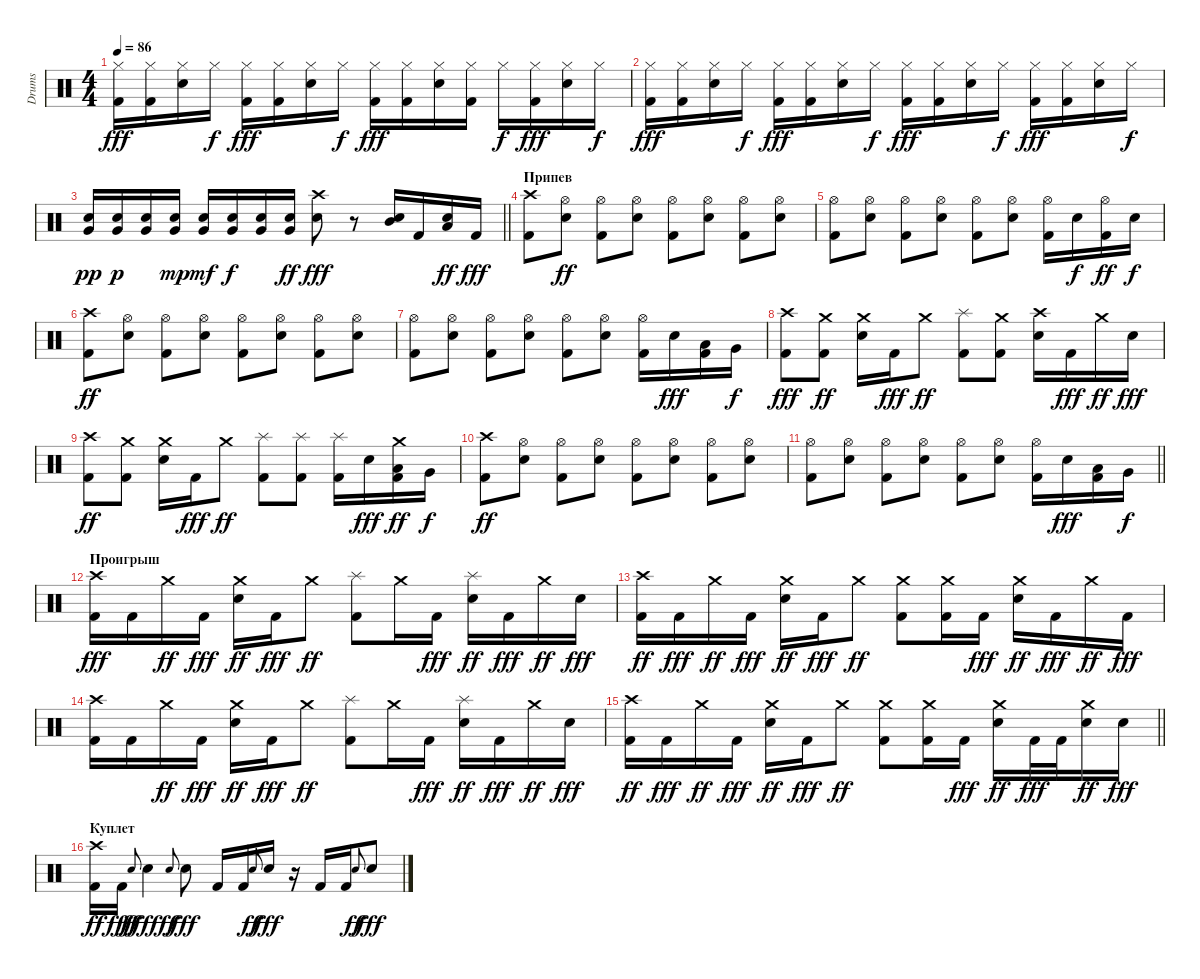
\track ("Drums" "Drums") {instrument percussion}
\staff {score}
\articulation defaults
\ts (4 4)
\tempo 86
\clef neutral
\ks c
("Kick (hit) 2" "Hi-Hat (closed)").16{dy fff} ("Kick (hit) 2" "Hi-Hat (closed)").16 ("Electric Snare (hit)" "Hi-Hat (closed)").16 "Hi-Hat (closed)".16{dy f} ("Kick (hit) 2" "Hi-Hat (closed)").16{dy fff} ("Kick (hit) 2" "Hi-Hat (closed)").16 ("Electric Snare (hit)" "Hi-Hat (closed)").16 "Hi-Hat (closed)".16{dy f} ("Kick (hit) 2" "Hi-Hat (closed)").16{dy fff} ("Kick (hit) 2" "Hi-Hat (closed)").16 ("Electric Snare (hit)" "Hi-Hat (closed)").16 ("Kick (hit) 2" "Hi-Hat (closed)").16 "Hi-Hat (closed)".16{dy f} ("Kick (hit) 2" "Hi-Hat (closed)").16{dy fff} ("Electric Snare (hit)" "Hi-Hat (closed)").16 "Hi-Hat (closed)".16{dy f} |
("Kick (hit) 2" "Hi-Hat (closed)").16{dy fff} ("Kick (hit) 2" "Hi-Hat (closed)").16 ("Electric Snare (hit)" "Hi-Hat (closed)").16 "Hi-Hat (closed)".16{dy f} ("Kick (hit) 2" "Hi-Hat (closed)").16{dy fff} ("Kick (hit) 2" "Hi-Hat (closed)").16 ("Electric Snare (hit)" "Hi-Hat (closed)").16 "Hi-Hat (closed)".16{dy f} ("Kick (hit) 2" "Hi-Hat (closed)").16{dy fff} ("Kick (hit) 2" "Hi-Hat (closed)").16 ("Electric Snare (hit)" "Hi-Hat (closed)").16 "Hi-Hat (closed)".16{dy f} ("Kick (hit) 2" "Hi-Hat (closed)").16{dy fff} ("Kick (hit) 2" "Hi-Hat (closed)").16 ("Electric Snare (hit)" "Hi-Hat (closed)").16 "Hi-Hat (closed)".16{dy f} |
\barLineRight lightlight
("Electric Snare (hit)" "Very Low Tom (hit)").16{dy pp} ("Electric Snare (hit)" "Very Low Tom (hit)").16{dy p} ("Electric Snare (hit)" "Very Low Tom (hit)").16 ("Electric Snare (hit)" "Very Low Tom (hit)").16{dy mp} ("Electric Snare (hit)" "Very Low Tom (hit)").16{dy mf} ("Electric Snare (hit)" "Very Low Tom (hit)").16{dy f} ("Electric Snare (hit)" "Very Low Tom (hit)").16 ("Electric Snare (hit)" "Very Low Tom (hit)").16{dy ff} ("Electric Snare (hit)" "Crash high (hit)").8{dy fff} r.8 ("Electric Snare (hit)" "Mid Tom (hit)").16 "Kick (hit) 2".16 ("Snare (hit) 2" "Low Floor Tom (hit)").16{dy ff} "Kick (hit) 2".16{dy fff} |
\section ("" "Припев")
("Kick (hit) 2" "Crash high (hit)").8 ("Electric Snare (hit)" "Hi-Hat (open)").8{dy ff} ("Kick (hit) 2" "Hi-Hat (open)").8 ("Electric Snare (hit)" "Hi-Hat (open)").8 ("Kick (hit) 2" "Hi-Hat (open)").8 ("Electric Snare (hit)" "Hi-Hat (open)").8 ("Kick (hit) 2" "Hi-Hat (open)").8 ("Electric Snare (hit)" "Hi-Hat (open)").8 |
("Kick (hit) 2" "Hi-Hat (open)").8 ("Electric Snare (hit)" "Hi-Hat (open)").8 ("Kick (hit) 2" "Hi-Hat (open)").8 ("Electric Snare (hit)" "Hi-Hat (open)").8 ("Kick (hit) 2" "Hi-Hat (open)").8 ("Electric Snare (hit)" "Hi-Hat (open)").8 ("Kick (hit) 2" "Hi-Hat (open)").16 "Electric Snare (hit)".16{dy f} ("Kick (hit) 2" "Hi-Hat (open)").16{dy ff} "Electric Snare (hit)".16{dy f} |
("Kick (hit) 2" "Crash high (hit)").8{dy ff} ("Electric Snare (hit)" "Hi-Hat (open)").8 ("Kick (hit) 2" "Hi-Hat (open)").8 ("Electric Snare (hit)" "Hi-Hat (open)").8 ("Kick (hit) 2" "Hi-Hat (open)").8 ("Electric Snare (hit)" "Hi-Hat (open)").8 ("Kick (hit) 2" "Hi-Hat (open)").8 ("Electric Snare (hit)" "Hi-Hat (open)").8 |
("Kick (hit) 2" "Hi-Hat (open)").8 ("Electric Snare (hit)" "Hi-Hat (open)").8 ("Kick (hit) 2" "Hi-Hat (open)").8 ("Electric Snare (hit)" "Hi-Hat (open)").8 ("Kick (hit) 2" "Hi-Hat (open)").8 ("Electric Snare (hit)" "Hi-Hat (open)").8 ("Kick (hit) 2" "Hi-Hat (open)").16 "Electric Snare (hit)".16{dy fff} ("Kick (hit) 2" "Low Floor Tom (hit)").16 "Very Low Tom (hit)".16{dy f} |
("Kick (hit) 2" "Crash high (hit)").8{dy fff} ("Kick (hit) 2" "Crash medium (hit)").8{dy ff} ("Electric Snare (hit)" "Crash medium (hit)").16 "Kick (hit) 2".16{dy fff} "Crash medium (hit)".8{dy ff} ("Kick (hit) 2" "Splash (hit)").8 ("Kick (hit) 2" "Crash medium (hit)").8 ("Electric Snare (hit)" "Crash high (hit)").16 "Kick (hit) 2".16{dy fff} "Crash medium (hit)".16{dy ff} "Electric Snare (hit)".16{dy fff} |
("Kick (hit) 2" "Crash high (hit)").8{dy ff} ("Kick (hit) 2" "Crash medium (hit)").8 ("Electric Snare (hit)" "Crash medium (hit)").16 "Kick (hit) 2".16{dy fff} "Crash medium (hit)".8{dy ff} ("Kick (hit) 2" "Splash (hit)").8 ("Kick (hit) 2" "Splash (hit)").8 ("Kick (hit) 2" "Splash (hit)").16 "Electric Snare (hit)".16{dy fff} ("Kick (hit) 2" "Low Floor Tom (hit)" "Crash medium (hit)").16{dy ff} "Very Low Tom (hit)".16{dy f} |
("Kick (hit) 2" "Crash high (hit)").8{dy ff} ("Electric Snare (hit)" "Hi-Hat (open)").8 ("Kick (hit) 2" "Hi-Hat (open)").8 ("Electric Snare (hit)" "Hi-Hat (open)").8 ("Kick (hit) 2" "Hi-Hat (open)").8 ("Electric Snare (hit)" "Hi-Hat (open)").8 ("Kick (hit) 2" "Hi-Hat (open)").8 ("Electric Snare (hit)" "Hi-Hat (open)").8 |
\barLineRight lightlight
("Kick (hit) 2" "Hi-Hat (open)").8 ("Electric Snare (hit)" "Hi-Hat (open)").8 ("Kick (hit) 2" "Hi-Hat (open)").8 ("Electric Snare (hit)" "Hi-Hat (open)").8 ("Kick (hit) 2" "Hi-Hat (open)").8 ("Electric Snare (hit)" "Hi-Hat (open)").8 ("Kick (hit) 2" "Hi-Hat (open)").16 "Electric Snare (hit)".16{dy fff} ("Kick (hit) 2" "Low Floor Tom (hit)").16 "Very Low Tom (hit)".16{dy f} |
\section ("" "Проигрыш")
("Kick (hit) 2" "Crash high (hit)").16{dy fff} "Kick (hit) 2".16 "Crash medium (hit)".16{dy ff} "Kick (hit) 2".16{dy fff} ("Electric Snare (hit)" "Crash medium (hit)").16{dy ff} "Kick (hit) 2".16{dy fff} "Crash medium (hit)".8{dy ff} ("Kick (hit) 2" "Splash (hit)").8 "Crash medium (hit)".16 "Kick (hit) 2".16{dy fff} ("Electric Snare (hit)" "Splash (hit)").16{dy ff} "Kick (hit) 2".16{dy fff} "Crash medium (hit)".16{dy ff} "Electric Snare (hit)".16{dy fff} |
("Kick (hit) 2" "Crash high (hit)").16{dy ff} "Kick (hit) 2".16{dy fff} "Crash medium (hit)".16{dy ff} "Kick (hit) 2".16{dy fff} ("Electric Snare (hit)" "Crash medium (hit)").16{dy ff} "Kick (hit) 2".16{dy fff} "Crash medium (hit)".8{dy ff} ("Kick (hit) 2" "Crash medium (hit)").8 ("Kick (hit) 2" "Crash medium (hit)").16 "Kick (hit) 2".16{dy fff} ("Electric Snare (hit)" "Crash medium (hit)").16{dy ff} "Kick (hit) 2".16{dy fff} "Crash medium (hit)".16{dy ff} "Kick (hit) 2".16{dy fff} |
("Kick (hit) 2" "Crash high (hit)").16 "Kick (hit) 2".16 "Crash medium (hit)".16{dy ff} "Kick (hit) 2".16{dy fff} ("Electric Snare (hit)" "Crash medium (hit)").16{dy ff} "Kick (hit) 2".16{dy fff} "Crash medium (hit)".8{dy ff} ("Kick (hit) 2" "Splash (hit)").8 "Crash medium (hit)".16 "Kick (hit) 2".16{dy fff} ("Electric Snare (hit)" "Splash (hit)").16{dy ff} "Kick (hit) 2".16{dy fff} "Crash medium (hit)".16{dy ff} "Electric Snare (hit)".16{dy fff} |
\barLineRight lightlight
("Kick (hit) 2" "Crash high (hit)").16{dy ff} "Kick (hit) 2".16{dy fff} "Crash medium (hit)".16{dy ff} "Kick (hit) 2".16{dy fff} ("Electric Snare (hit)" "Crash medium (hit)").16{dy ff} "Kick (hit) 2".16{dy fff} "Crash medium (hit)".8{dy ff} ("Kick (hit) 2" "Crash medium (hit)").8 ("Kick (hit) 2" "Crash medium (hit)").16 "Kick (hit) 2".16{dy fff} ("Electric Snare (hit)" "Crash medium (hit)").16{dy ff} "Kick (hit) 2".32{dy fff} "Kick (hit) 2".32 ("Electric Snare (hit)" "Crash medium (hit)").16{dy ff} "Electric Snare (hit)".16{dy fff} |
\section ("" "Куплет")
("Kick (hit) 2" "Crash high (hit)").16{dy ff} "Kick (hit) 2".16{dy fff} "Electric Snare (hit)".8{gr onbeat dy ff} "Electric Snare (hit)".4{dy fff} "Electric Snare (hit)".8{gr onbeat dy ff} "Electric Snare (hit)".8{dy fff} "Kick (hit) 2".16 "Kick (hit) 2".16 "Electric Snare (hit)".8{gr onbeat dy ff} "Electric Snare (hit)".16{dy fff} r.16 "Kick (hit) 2".16 "Kick (hit) 2".16 "Electric Snare (hit)".8{gr onbeat dy ff} "Electric Snare (hit)".8{dy fff}
